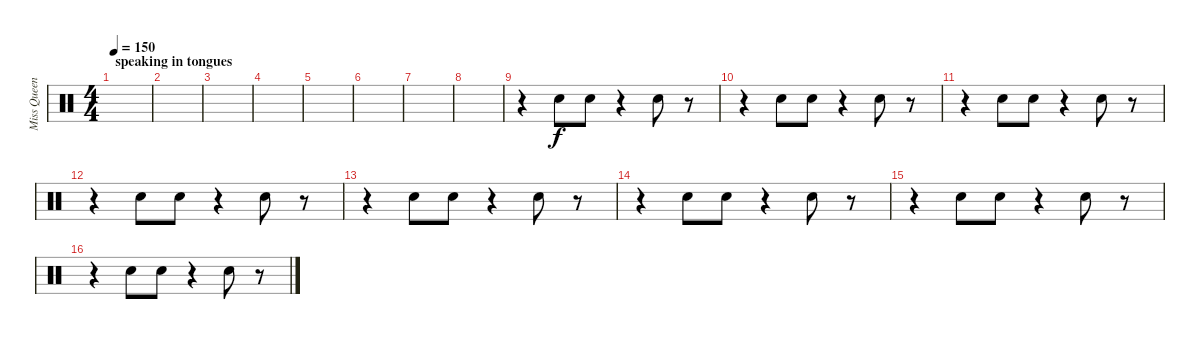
\track ("Miss Queen B(rodie)" "Miss Queen") {instrument percussion}
\staff {score}
\articulation defaults
\ts (4 4)
\section ("" "speaking in tongues")
\tempo 150
\clef neutral
\ks c
|
|
|
|
|
|
|
|
\section ("" "")
r.4 "Hand Clap (hit)".8 "Hand Clap (hit)".8 r.4 "Hand Clap (hit)".8 r.8 |
r.4 "Hand Clap (hit)".8 "Hand Clap (hit)".8 r.4 "Hand Clap (hit)".8 r.8 |
r.4 "Hand Clap (hit)".8 "Hand Clap (hit)".8 r.4 "Hand Clap (hit)".8 r.8 |
r.4 "Hand Clap (hit)".8 "Hand Clap (hit)".8 r.4 "Hand Clap (hit)".8 r.8 |
r.4 "Hand Clap (hit)".8 "Hand Clap (hit)".8 r.4 "Hand Clap (hit)".8 r.8 |
r.4 "Hand Clap (hit)".8 "Hand Clap (hit)".8 r.4 "Hand Clap (hit)".8 r.8 |
r.4 "Hand Clap (hit)".8 "Hand Clap (hit)".8 r.4 "Hand Clap (hit)".8 r.8 |
r.4 "Hand Clap (hit)".8 "Hand Clap (hit)".8 r.4 "Hand Clap (hit)".8 r.8
